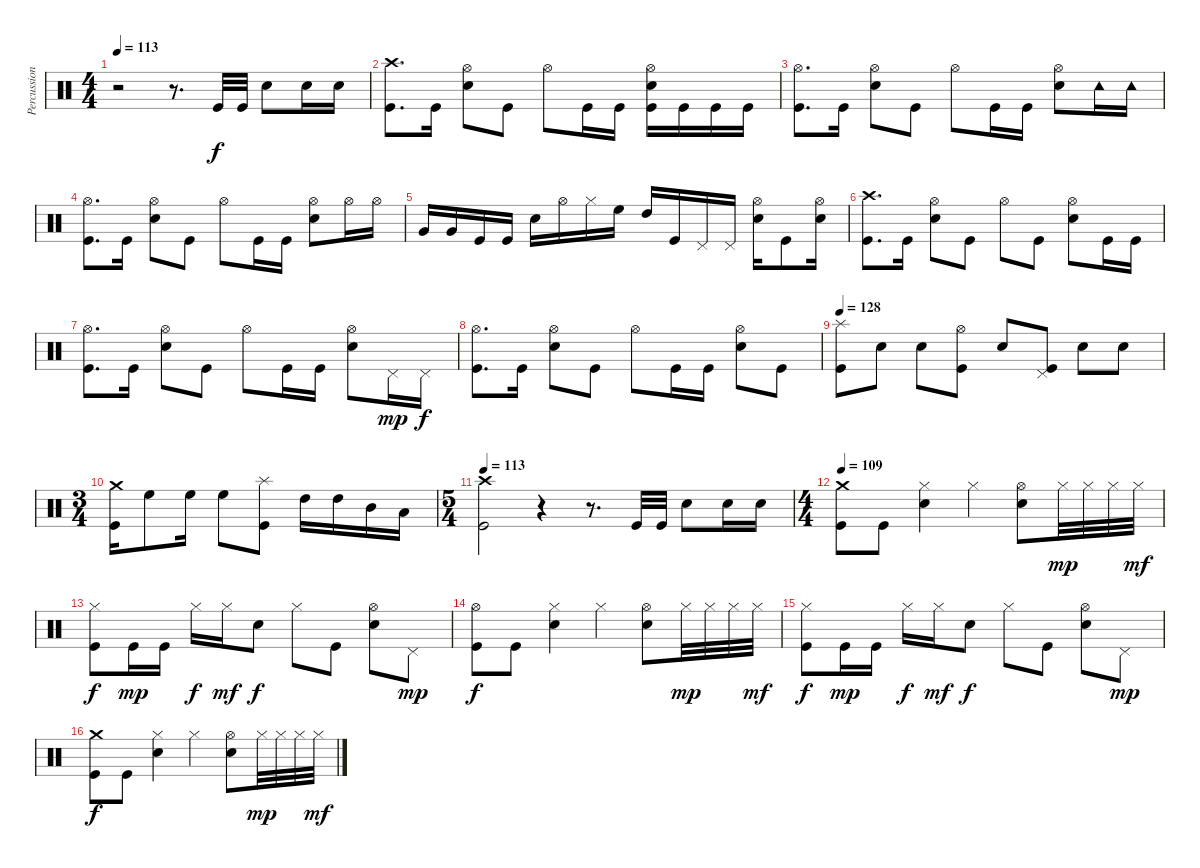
\track ("Percussioni" "Percussion") {instrument percussion}
\staff {score}
\articulation defaults
\ts (4 4)
\tempo 113
\clef neutral
\ks c
r.2{dy f} r.8{d} "Kick (hit)".32 "Kick (hit)".32 "Snare (hit) 2".8 "Snare (hit) 2".16 "Snare (hit) 2".16 |
("Crash high (hit)" "Kick (hit)").8{d} "Kick (hit)".16 ("Hi-Hat (open)" "Snare (hit) 2").8 "Kick (hit)".8 "Hi-Hat (open)".8 "Kick (hit)".16 "Kick (hit)".16 ("Hi-Hat (open)" "Snare (hit) 2" "Kick (hit)").16 "Kick (hit)".16 "Kick (hit)".16 "Kick (hit)".16 |
("Hi-Hat (open)" "Kick (hit)").8{d} "Kick (hit)".16 ("Hi-Hat (open)" "Snare (hit) 2").8 "Kick (hit)".8 "Hi-Hat (open)".8 "Kick (hit)".16 "Kick (hit)".16 ("Hi-Hat (open)" "Snare (hit) 2").8 "Tambourine (hit)".16 "Tambourine (hit)".16 |
("Hi-Hat (open)" "Kick (hit)").8{d} "Kick (hit)".16 ("Hi-Hat (open)" "Snare (hit) 2").8 "Kick (hit)".8 "Hi-Hat (open)".8 "Kick (hit)".16 "Kick (hit)".16 ("Hi-Hat (open)" "Snare (hit) 2").8 "Hi-Hat (open)".16 "Hi-Hat (open)".16 |
"Very Low Tom (hit)".16 "Very Low Tom (hit)".16 "Kick (hit)".16 "Kick (hit)".16 "Snare (hit) 2".16 "Hi-Hat (open)".16 "Hi-Hat (closed)".16 "High Floor Tom (hit)".16 "High Tom (hit)".16 "Kick (hit)".16 "Pedal Hi-Hat (hit)".16 "Pedal Hi-Hat (hit)".16 ("Hi-Hat (open)" "Snare (hit) 2").16 "Kick (hit)".8 ("Hi-Hat (open)" "Snare (hit) 2").16 |
("Crash high (hit)" "Kick (hit)").8{d} "Kick (hit)".16 ("Hi-Hat (open)" "Snare (hit) 2").8 "Kick (hit)".8 "Hi-Hat (open)".8 "Kick (hit)".8 ("Hi-Hat (open)" "Snare (hit) 2").8 "Kick (hit)".16 "Kick (hit)".16 |
("Hi-Hat (open)" "Kick (hit)").8{d} "Kick (hit)".16 ("Hi-Hat (open)" "Snare (hit) 2").8 "Kick (hit)".8 "Hi-Hat (open)".8 "Kick (hit)".16 "Kick (hit)".16 ("Hi-Hat (open)" "Snare (hit) 2").8 "Pedal Hi-Hat (hit)".16{dy mp} "Pedal Hi-Hat (hit)".16{dy f} |
("Hi-Hat (open)" "Kick (hit)").8{d} "Kick (hit)".16 ("Hi-Hat (open)" "Snare (hit) 2").8 "Kick (hit)".8 "Hi-Hat (open)".8 "Kick (hit)".16 "Kick (hit)".16 ("Hi-Hat (open)" "Snare (hit) 2").8 "Kick (hit)".8 |
\tempo 128
("Splash (hit)" "Kick (hit)").8 "Snare (hit) 2".8 "Snare (hit) 2".8 ("Hi-Hat (open)" "Kick (hit)").8 "Snare (hit) 2".8 ("Pedal Hi-Hat (hit)" "Kick (hit)").8 "Snare (hit) 2".8 "Snare (hit) 2".8 |
\ts (3 4)
("Crash medium (hit)" "Kick (hit)").16 "High Floor Tom (hit)".8 "High Floor Tom (hit)".16 "High Floor Tom (hit)".8 ("Splash (hit)" "Kick (hit)").8 "High Tom (hit)".16 "High Tom (hit)".16 "Mid Tom (hit)".16 "Low Tom (hit)".16 |
\ts (5 4)
\tempo 113
("Crash high (hit)" "Kick (hit)").2 r.4 r.8{d} "Kick (hit)".32 "Kick (hit)".32 "Snare (hit) 2".8 "Snare (hit) 2".16 "Snare (hit) 2".16 |
\ts (4 4)
\tempo 109
("Crash medium (hit)" "Kick (hit)").8 "Kick (hit)".8 ("Hi-Hat (closed)" "Snare (hit) 2").4 "Hi-Hat (closed)".4 ("Hi-Hat (open)" "Snare (hit) 2").8 "Hi-Hat (closed)".32{dy mp} "Hi-Hat (closed)".32 "Hi-Hat (closed)".32 "Hi-Hat (closed)".32{dy mf} |
("Hi-Hat (closed)" "Kick (hit)").8{dy f} "Kick (hit)".16{dy mp} "Kick (hit)".16 "Hi-Hat (closed)".16{dy f} "Hi-Hat (closed)".16{dy mf} "Snare (hit) 2".8{dy f} "Hi-Hat (closed)".8 "Kick (hit)".8 ("Hi-Hat (open)" "Snare (hit) 2").8 "Pedal Hi-Hat (hit)".8{dy mp} |
("Hi-Hat (open)" "Kick (hit)").8{dy f} "Kick (hit)".8 ("Hi-Hat (closed)" "Snare (hit) 2").4 "Hi-Hat (closed)".4 ("Hi-Hat (open)" "Snare (hit) 2").8 "Hi-Hat (closed)".32{dy mp} "Hi-Hat (closed)".32 "Hi-Hat (closed)".32 "Hi-Hat (closed)".32{dy mf} |
("Hi-Hat (closed)" "Kick (hit)").8{dy f} "Kick (hit)".16{dy mp} "Kick (hit)".16 "Hi-Hat (closed)".16{dy f} "Hi-Hat (closed)".16{dy mf} "Snare (hit) 2".8{dy f} "Hi-Hat (closed)".8 "Kick (hit)".8 ("Hi-Hat (open)" "Snare (hit) 2").8 "Pedal Hi-Hat (hit)".8{dy mp} |
("Crash medium (hit)" "Kick (hit)").8{dy f} "Kick (hit)".8 ("Hi-Hat (closed)" "Snare (hit) 2").4 "Hi-Hat (closed)".4 ("Hi-Hat (open)" "Snare (hit) 2").8 "Hi-Hat (closed)".32{dy mp} "Hi-Hat (closed)".32 "Hi-Hat (closed)".32 "Hi-Hat (closed)".32{dy mf}
